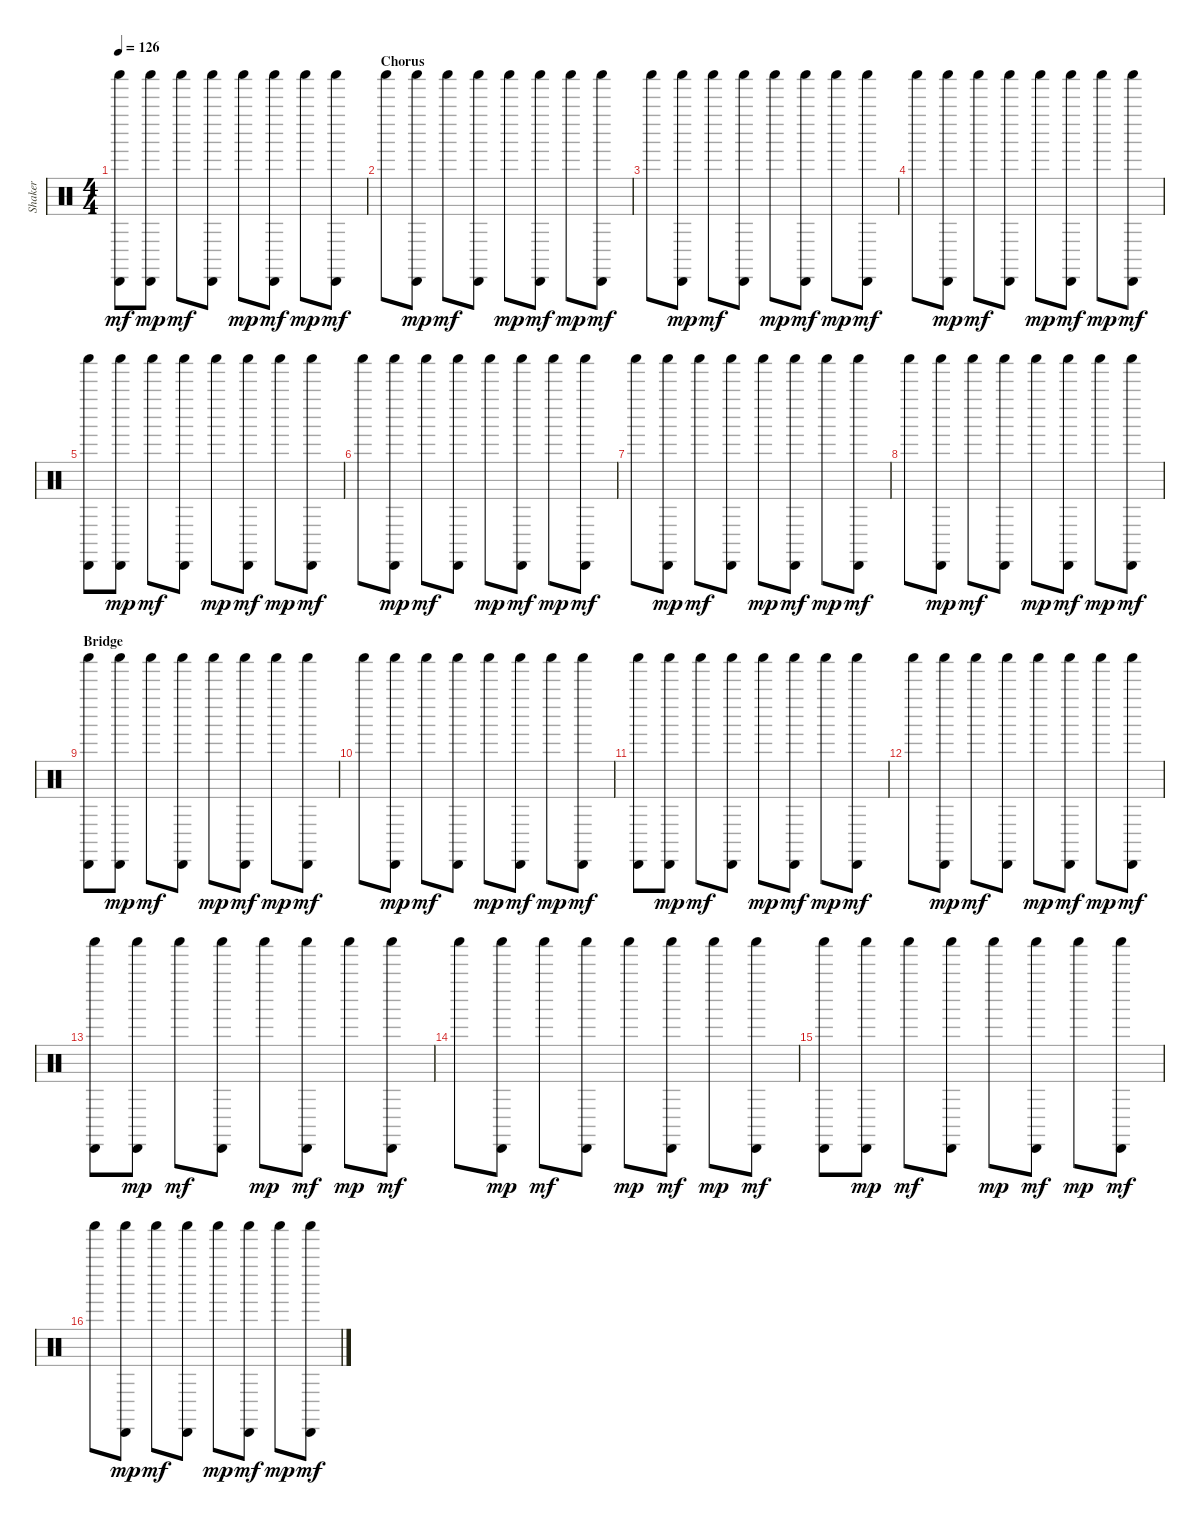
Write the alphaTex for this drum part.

\track ("Shaker" "Shaker") {instrument percussion}
\staff {score}
\articulation defaults
\ts (4 4)
\tempo 126
\clef neutral
\ks c
("Cabasa (hit)" "Shaker (hit)").8{dy mf} ("Cabasa (hit)" "Shaker (hit)").8{dy mp} "Shaker (hit)".8{dy mf} ("Cabasa (hit)" "Shaker (hit)").8 "Shaker (hit)".8{dy mp} ("Cabasa (hit)" "Shaker (hit)").8{dy mf} "Shaker (hit)".8{dy mp} ("Cabasa (hit)" "Shaker (hit)").8{dy mf} |
\section ("" "Chorus")
"Shaker (hit)".8 ("Cabasa (hit)" "Shaker (hit)").8{dy mp} "Shaker (hit)".8{dy mf} ("Cabasa (hit)" "Shaker (hit)").8 "Shaker (hit)".8{dy mp} ("Cabasa (hit)" "Shaker (hit)").8{dy mf} "Shaker (hit)".8{dy mp} ("Cabasa (hit)" "Shaker (hit)").8{dy mf} |
"Shaker (hit)".8 ("Cabasa (hit)" "Shaker (hit)").8{dy mp} "Shaker (hit)".8{dy mf} ("Cabasa (hit)" "Shaker (hit)").8 "Shaker (hit)".8{dy mp} ("Cabasa (hit)" "Shaker (hit)").8{dy mf} "Shaker (hit)".8{dy mp} ("Cabasa (hit)" "Shaker (hit)").8{dy mf} |
"Shaker (hit)".8 ("Cabasa (hit)" "Shaker (hit)").8{dy mp} "Shaker (hit)".8{dy mf} ("Cabasa (hit)" "Shaker (hit)").8 "Shaker (hit)".8{dy mp} ("Cabasa (hit)" "Shaker (hit)").8{dy mf} "Shaker (hit)".8{dy mp} ("Cabasa (hit)" "Shaker (hit)").8{dy mf} |
("Cabasa (hit)" "Shaker (hit)").8 ("Cabasa (hit)" "Shaker (hit)").8{dy mp} "Shaker (hit)".8{dy mf} ("Cabasa (hit)" "Shaker (hit)").8 "Shaker (hit)".8{dy mp} ("Cabasa (hit)" "Shaker (hit)").8{dy mf} "Shaker (hit)".8{dy mp} ("Cabasa (hit)" "Shaker (hit)").8{dy mf} |
"Shaker (hit)".8 ("Cabasa (hit)" "Shaker (hit)").8{dy mp} "Shaker (hit)".8{dy mf} ("Cabasa (hit)" "Shaker (hit)").8 "Shaker (hit)".8{dy mp} ("Cabasa (hit)" "Shaker (hit)").8{dy mf} "Shaker (hit)".8{dy mp} ("Cabasa (hit)" "Shaker (hit)").8{dy mf} |
"Shaker (hit)".8 ("Cabasa (hit)" "Shaker (hit)").8{dy mp} "Shaker (hit)".8{dy mf} ("Cabasa (hit)" "Shaker (hit)").8 "Shaker (hit)".8{dy mp} ("Cabasa (hit)" "Shaker (hit)").8{dy mf} "Shaker (hit)".8{dy mp} ("Cabasa (hit)" "Shaker (hit)").8{dy mf} |
"Shaker (hit)".8 ("Cabasa (hit)" "Shaker (hit)").8{dy mp} "Shaker (hit)".8{dy mf} ("Cabasa (hit)" "Shaker (hit)").8 "Shaker (hit)".8{dy mp} ("Cabasa (hit)" "Shaker (hit)").8{dy mf} "Shaker (hit)".8{dy mp} ("Cabasa (hit)" "Shaker (hit)").8{dy mf} |
\section ("" "Bridge")
("Cabasa (hit)" "Shaker (hit)").8 ("Cabasa (hit)" "Shaker (hit)").8{dy mp} "Shaker (hit)".8{dy mf} ("Cabasa (hit)" "Shaker (hit)").8 "Shaker (hit)".8{dy mp} ("Cabasa (hit)" "Shaker (hit)").8{dy mf} "Shaker (hit)".8{dy mp} ("Cabasa (hit)" "Shaker (hit)").8{dy mf} |
"Shaker (hit)".8 ("Cabasa (hit)" "Shaker (hit)").8{dy mp} "Shaker (hit)".8{dy mf} ("Cabasa (hit)" "Shaker (hit)").8 "Shaker (hit)".8{dy mp} ("Cabasa (hit)" "Shaker (hit)").8{dy mf} "Shaker (hit)".8{dy mp} ("Cabasa (hit)" "Shaker (hit)").8{dy mf} |
("Cabasa (hit)" "Shaker (hit)").8 ("Cabasa (hit)" "Shaker (hit)").8{dy mp} "Shaker (hit)".8{dy mf} ("Cabasa (hit)" "Shaker (hit)").8 "Shaker (hit)".8{dy mp} ("Cabasa (hit)" "Shaker (hit)").8{dy mf} "Shaker (hit)".8{dy mp} ("Cabasa (hit)" "Shaker (hit)").8{dy mf} |
"Shaker (hit)".8 ("Cabasa (hit)" "Shaker (hit)").8{dy mp} "Shaker (hit)".8{dy mf} ("Cabasa (hit)" "Shaker (hit)").8 "Shaker (hit)".8{dy mp} ("Cabasa (hit)" "Shaker (hit)").8{dy mf} "Shaker (hit)".8{dy mp} ("Cabasa (hit)" "Shaker (hit)").8{dy mf} |
("Cabasa (hit)" "Shaker (hit)").8 ("Cabasa (hit)" "Shaker (hit)").8{dy mp} "Shaker (hit)".8{dy mf} ("Cabasa (hit)" "Shaker (hit)").8 "Shaker (hit)".8{dy mp} ("Cabasa (hit)" "Shaker (hit)").8{dy mf} "Shaker (hit)".8{dy mp} ("Cabasa (hit)" "Shaker (hit)").8{dy mf} |
"Shaker (hit)".8 ("Cabasa (hit)" "Shaker (hit)").8{dy mp} "Shaker (hit)".8{dy mf} ("Cabasa (hit)" "Shaker (hit)").8 "Shaker (hit)".8{dy mp} ("Cabasa (hit)" "Shaker (hit)").8{dy mf} "Shaker (hit)".8{dy mp} ("Cabasa (hit)" "Shaker (hit)").8{dy mf} |
("Cabasa (hit)" "Shaker (hit)").8 ("Cabasa (hit)" "Shaker (hit)").8{dy mp} "Shaker (hit)".8{dy mf} ("Cabasa (hit)" "Shaker (hit)").8 "Shaker (hit)".8{dy mp} ("Cabasa (hit)" "Shaker (hit)").8{dy mf} "Shaker (hit)".8{dy mp} ("Cabasa (hit)" "Shaker (hit)").8{dy mf} |
"Shaker (hit)".8 ("Cabasa (hit)" "Shaker (hit)").8{dy mp} "Shaker (hit)".8{dy mf} ("Cabasa (hit)" "Shaker (hit)").8 "Shaker (hit)".8{dy mp} ("Cabasa (hit)" "Shaker (hit)").8{dy mf} "Shaker (hit)".8{dy mp} ("Cabasa (hit)" "Shaker (hit)").8{dy mf}
